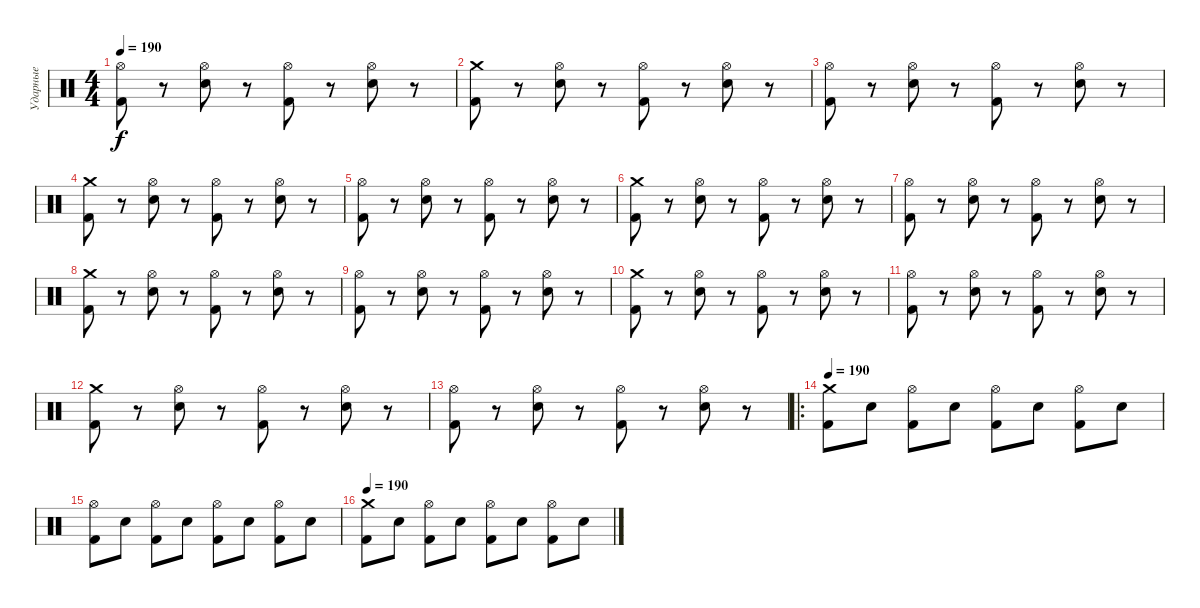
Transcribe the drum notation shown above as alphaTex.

\track ("Ударные" "Ударные") {instrument percussion}
\staff {score}
\articulation defaults
\ts (4 4)
\tempo 190
\clef neutral
\ks c
("Hi-Hat (open)" "Kick (hit) 2").8{dy f} r.8 ("Hi-Hat (open)" "Electric Snare (hit)").8 r.8 ("Hi-Hat (open)" "Kick (hit) 2").8 r.8 ("Hi-Hat (open)" "Electric Snare (hit)").8 r.8 |
("Crash medium (hit)" "Kick (hit) 2").8 r.8 ("Hi-Hat (open)" "Electric Snare (hit)").8 r.8 ("Hi-Hat (open)" "Kick (hit) 2").8 r.8 ("Hi-Hat (open)" "Electric Snare (hit)").8 r.8 |
("Hi-Hat (open)" "Kick (hit) 2").8 r.8 ("Hi-Hat (open)" "Electric Snare (hit)").8 r.8 ("Hi-Hat (open)" "Kick (hit) 2").8 r.8 ("Hi-Hat (open)" "Electric Snare (hit)").8 r.8 |
("Crash medium (hit)" "Kick (hit) 2").8 r.8 ("Hi-Hat (open)" "Electric Snare (hit)").8 r.8 ("Hi-Hat (open)" "Kick (hit) 2").8 r.8 ("Hi-Hat (open)" "Electric Snare (hit)").8 r.8 |
("Hi-Hat (open)" "Kick (hit) 2").8 r.8 ("Hi-Hat (open)" "Electric Snare (hit)").8 r.8 ("Hi-Hat (open)" "Kick (hit) 2").8 r.8 ("Hi-Hat (open)" "Electric Snare (hit)").8 r.8 |
("Crash medium (hit)" "Kick (hit) 2").8 r.8 ("Hi-Hat (open)" "Electric Snare (hit)").8 r.8 ("Hi-Hat (open)" "Kick (hit) 2").8 r.8 ("Hi-Hat (open)" "Electric Snare (hit)").8 r.8 |
("Hi-Hat (open)" "Kick (hit) 2").8 r.8 ("Hi-Hat (open)" "Electric Snare (hit)").8 r.8 ("Hi-Hat (open)" "Kick (hit) 2").8 r.8 ("Hi-Hat (open)" "Electric Snare (hit)").8 r.8 |
("Crash medium (hit)" "Kick (hit) 2").8 r.8 ("Hi-Hat (open)" "Electric Snare (hit)").8 r.8 ("Hi-Hat (open)" "Kick (hit) 2").8 r.8 ("Hi-Hat (open)" "Electric Snare (hit)").8 r.8 |
("Hi-Hat (open)" "Kick (hit) 2").8 r.8 ("Hi-Hat (open)" "Electric Snare (hit)").8 r.8 ("Hi-Hat (open)" "Kick (hit) 2").8 r.8 ("Hi-Hat (open)" "Electric Snare (hit)").8 r.8 |
("Crash medium (hit)" "Kick (hit) 2").8 r.8 ("Hi-Hat (open)" "Electric Snare (hit)").8 r.8 ("Hi-Hat (open)" "Kick (hit) 2").8 r.8 ("Hi-Hat (open)" "Electric Snare (hit)").8 r.8 |
("Hi-Hat (open)" "Kick (hit) 2").8 r.8 ("Hi-Hat (open)" "Electric Snare (hit)").8 r.8 ("Hi-Hat (open)" "Kick (hit) 2").8 r.8 ("Hi-Hat (open)" "Electric Snare (hit)").8 r.8 |
("Crash medium (hit)" "Kick (hit) 2").8 r.8 ("Hi-Hat (open)" "Electric Snare (hit)").8 r.8 ("Hi-Hat (open)" "Kick (hit) 2").8 r.8 ("Hi-Hat (open)" "Electric Snare (hit)").8 r.8 |
("Hi-Hat (open)" "Kick (hit) 2").8 r.8 ("Hi-Hat (open)" "Electric Snare (hit)").8 r.8 ("Hi-Hat (open)" "Kick (hit) 2").8 r.8 ("Hi-Hat (open)" "Electric Snare (hit)").8 r.8 |
\ro
\tempo 190
("Crash medium (hit)" "Kick (hit) 2").8 "Electric Snare (hit)".8 ("Hi-Hat (open)" "Kick (hit) 2").8 "Electric Snare (hit)".8 ("Hi-Hat (open)" "Kick (hit) 2").8 "Electric Snare (hit)".8 ("Hi-Hat (open)" "Kick (hit) 2").8 "Electric Snare (hit)".8 |
("Hi-Hat (open)" "Kick (hit) 2").8 "Electric Snare (hit)".8 ("Hi-Hat (open)" "Kick (hit) 2").8 "Electric Snare (hit)".8 ("Hi-Hat (open)" "Kick (hit) 2").8 "Electric Snare (hit)".8 ("Hi-Hat (open)" "Kick (hit) 2").8 "Electric Snare (hit)".8 |
\tempo 190
("Crash medium (hit)" "Kick (hit) 2").8 "Electric Snare (hit)".8 ("Hi-Hat (open)" "Kick (hit) 2").8 "Electric Snare (hit)".8 ("Hi-Hat (open)" "Kick (hit) 2").8 "Electric Snare (hit)".8 ("Hi-Hat (open)" "Kick (hit) 2").8 "Electric Snare (hit)".8
